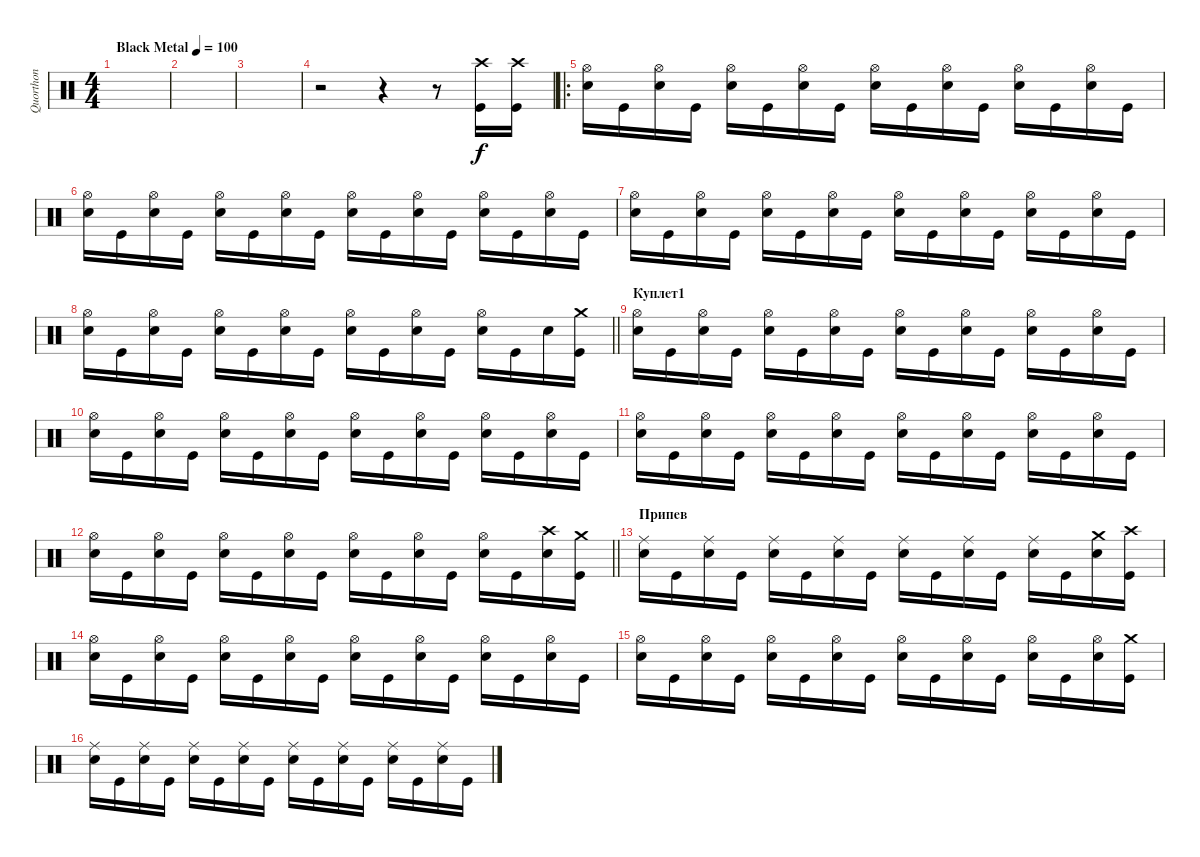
\track ("Quorthon" "Quorthon") {instrument percussion}
\staff {score}
\articulation defaults
\ts (4 4)
\tempo (100 "Black Metal")
\clef neutral
\ks c
|
|
|
r.2 r.4 r.8 ("Crash high (hit)" "Kick (hit)").16 ("Crash high (hit)" "Kick (hit)").16 |
\ro
("Hi-Hat (open)" "Snare (hit) 2").16 "Kick (hit)".16 ("Hi-Hat (open)" "Snare (hit) 2").16 "Kick (hit)".16 ("Hi-Hat (open)" "Snare (hit) 2").16 "Kick (hit)".16 ("Hi-Hat (open)" "Snare (hit) 2").16 "Kick (hit)".16 ("Hi-Hat (open)" "Snare (hit) 2").16 "Kick (hit)".16 ("Hi-Hat (open)" "Snare (hit) 2").16 "Kick (hit)".16 ("Hi-Hat (open)" "Snare (hit) 2").16 "Kick (hit)".16 ("Hi-Hat (open)" "Snare (hit) 2").16 "Kick (hit)".16 |
("Hi-Hat (open)" "Snare (hit) 2").16 "Kick (hit)".16 ("Hi-Hat (open)" "Snare (hit) 2").16 "Kick (hit)".16 ("Hi-Hat (open)" "Snare (hit) 2").16 "Kick (hit)".16 ("Hi-Hat (open)" "Snare (hit) 2").16 "Kick (hit)".16 ("Hi-Hat (open)" "Snare (hit) 2").16 "Kick (hit)".16 ("Hi-Hat (open)" "Snare (hit) 2").16 "Kick (hit)".16 ("Hi-Hat (open)" "Snare (hit) 2").16 "Kick (hit)".16 ("Hi-Hat (open)" "Snare (hit) 2").16 "Kick (hit)".16 |
("Hi-Hat (open)" "Snare (hit) 2").16 "Kick (hit)".16 ("Hi-Hat (open)" "Snare (hit) 2").16 "Kick (hit)".16 ("Hi-Hat (open)" "Snare (hit) 2").16 "Kick (hit)".16 ("Hi-Hat (open)" "Snare (hit) 2").16 "Kick (hit)".16 ("Hi-Hat (open)" "Snare (hit) 2").16 "Kick (hit)".16 ("Hi-Hat (open)" "Snare (hit) 2").16 "Kick (hit)".16 ("Hi-Hat (open)" "Snare (hit) 2").16 "Kick (hit)".16 ("Hi-Hat (open)" "Snare (hit) 2").16 "Kick (hit)".16 |
\barLineRight lightlight
("Hi-Hat (open)" "Snare (hit) 2").16 "Kick (hit)".16 ("Hi-Hat (open)" "Snare (hit) 2").16 "Kick (hit)".16 ("Hi-Hat (open)" "Snare (hit) 2").16 "Kick (hit)".16 ("Hi-Hat (open)" "Snare (hit) 2").16 "Kick (hit)".16 ("Hi-Hat (open)" "Snare (hit) 2").16 "Kick (hit)".16 ("Hi-Hat (open)" "Snare (hit) 2").16 "Kick (hit)".16 ("Hi-Hat (open)" "Snare (hit) 2").16 "Kick (hit)".16 "Snare (hit) 2".16 ("Crash medium (hit)" "Kick (hit)").16 |
\section ("" "Куплет1")
("Hi-Hat (open)" "Snare (hit) 2").16 "Kick (hit)".16 ("Hi-Hat (open)" "Snare (hit) 2").16 "Kick (hit)".16 ("Hi-Hat (open)" "Snare (hit) 2").16 "Kick (hit)".16 ("Hi-Hat (open)" "Snare (hit) 2").16 "Kick (hit)".16 ("Hi-Hat (open)" "Snare (hit) 2").16 "Kick (hit)".16 ("Hi-Hat (open)" "Snare (hit) 2").16 "Kick (hit)".16 ("Hi-Hat (open)" "Snare (hit) 2").16 "Kick (hit)".16 ("Hi-Hat (open)" "Snare (hit) 2").16 "Kick (hit)".16 |
("Hi-Hat (open)" "Snare (hit) 2").16 "Kick (hit)".16 ("Hi-Hat (open)" "Snare (hit) 2").16 "Kick (hit)".16 ("Hi-Hat (open)" "Snare (hit) 2").16 "Kick (hit)".16 ("Hi-Hat (open)" "Snare (hit) 2").16 "Kick (hit)".16 ("Hi-Hat (open)" "Snare (hit) 2").16 "Kick (hit)".16 ("Hi-Hat (open)" "Snare (hit) 2").16 "Kick (hit)".16 ("Hi-Hat (open)" "Snare (hit) 2").16 "Kick (hit)".16 ("Hi-Hat (open)" "Snare (hit) 2").16 "Kick (hit)".16 |
("Hi-Hat (open)" "Snare (hit) 2").16 "Kick (hit)".16 ("Hi-Hat (open)" "Snare (hit) 2").16 "Kick (hit)".16 ("Hi-Hat (open)" "Snare (hit) 2").16 "Kick (hit)".16 ("Hi-Hat (open)" "Snare (hit) 2").16 "Kick (hit)".16 ("Hi-Hat (open)" "Snare (hit) 2").16 "Kick (hit)".16 ("Hi-Hat (open)" "Snare (hit) 2").16 "Kick (hit)".16 ("Hi-Hat (open)" "Snare (hit) 2").16 "Kick (hit)".16 ("Hi-Hat (open)" "Snare (hit) 2").16 "Kick (hit)".16 |
\barLineRight lightlight
("Hi-Hat (open)" "Snare (hit) 2").16 "Kick (hit)".16 ("Hi-Hat (open)" "Snare (hit) 2").16 "Kick (hit)".16 ("Hi-Hat (open)" "Snare (hit) 2").16 "Kick (hit)".16 ("Hi-Hat (open)" "Snare (hit) 2").16 "Kick (hit)".16 ("Hi-Hat (open)" "Snare (hit) 2").16 "Kick (hit)".16 ("Hi-Hat (open)" "Snare (hit) 2").16 "Kick (hit)".16 ("Hi-Hat (open)" "Snare (hit) 2").16 "Kick (hit)".16 ("Crash high (hit)" "Snare (hit) 2").16 ("Crash medium (hit)" "Kick (hit)").16 |
\section ("" "Припев")
("Ride (middle)" "Snare (hit) 2").16 "Kick (hit)".16 ("Ride (middle)" "Snare (hit) 2").16 "Kick (hit)".16 ("Ride (middle)" "Snare (hit) 2").16 "Kick (hit)".16 ("Ride (middle)" "Snare (hit) 2").16 "Kick (hit)".16 ("Ride (middle)" "Snare (hit) 2").16 "Kick (hit)".16 ("Ride (middle)" "Snare (hit) 2").16 "Kick (hit)".16 ("Ride (middle)" "Snare (hit) 2").16 "Kick (hit)".16 ("Crash medium (hit)" "Snare (hit) 2").16 ("Crash high (hit)" "Kick (hit)").16 |
("Hi-Hat (open)" "Snare (hit) 2").16 "Kick (hit)".16 ("Hi-Hat (open)" "Snare (hit) 2").16 "Kick (hit)".16 ("Hi-Hat (open)" "Snare (hit) 2").16 "Kick (hit)".16 ("Hi-Hat (open)" "Snare (hit) 2").16 "Kick (hit)".16 ("Hi-Hat (open)" "Snare (hit) 2").16 "Kick (hit)".16 ("Hi-Hat (open)" "Snare (hit) 2").16 "Kick (hit)".16 ("Hi-Hat (open)" "Snare (hit) 2").16 "Kick (hit)".16 ("Hi-Hat (open)" "Snare (hit) 2").16 "Kick (hit)".16 |
("Hi-Hat (open)" "Snare (hit) 2").16 "Kick (hit)".16 ("Hi-Hat (open)" "Snare (hit) 2").16 "Kick (hit)".16 ("Hi-Hat (open)" "Snare (hit) 2").16 "Kick (hit)".16 ("Hi-Hat (open)" "Snare (hit) 2").16 "Kick (hit)".16 ("Hi-Hat (open)" "Snare (hit) 2").16 "Kick (hit)".16 ("Hi-Hat (open)" "Snare (hit) 2").16 "Kick (hit)".16 ("Hi-Hat (open)" "Snare (hit) 2").16 "Kick (hit)".16 ("Hi-Hat (open)" "Snare (hit) 2").16 ("Crash medium (hit)" "Kick (hit)").16 |
("Ride (middle)" "Snare (hit) 2").16 "Kick (hit)".16 ("Ride (middle)" "Snare (hit) 2").16 "Kick (hit)".16 ("Ride (middle)" "Snare (hit) 2").16 "Kick (hit)".16 ("Ride (middle)" "Snare (hit) 2").16 "Kick (hit)".16 ("Ride (middle)" "Snare (hit) 2").16 "Kick (hit)".16 ("Ride (middle)" "Snare (hit) 2").16 "Kick (hit)".16 ("Ride (middle)" "Snare (hit) 2").16 "Kick (hit)".16 ("Ride (middle)" "Snare (hit) 2").16 "Kick (hit)".16
